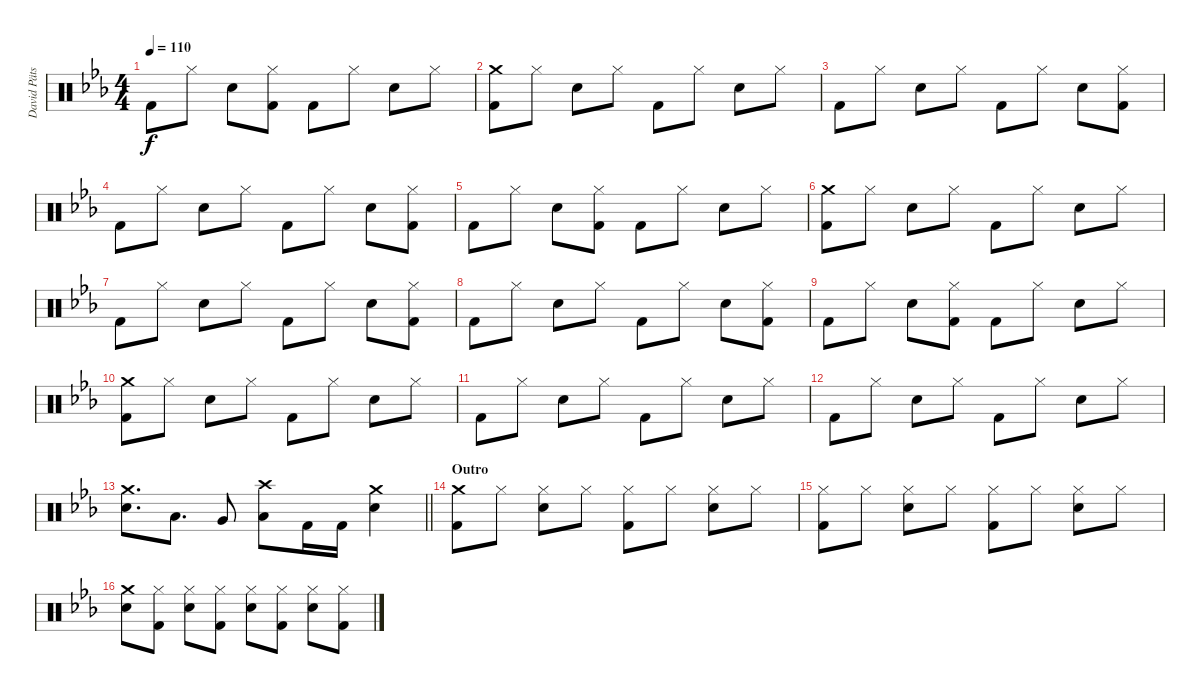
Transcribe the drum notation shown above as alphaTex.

\track ("David Pätsch" "David Päts") {instrument percussion}
\staff {score}
\articulation defaults
\ts (4 4)
\tempo 110
\clef neutral
\ks cminor "Kick (hit) 2".8{dy f} "Hi-Hat (closed)".8 "Snare (hit) 2".8
("Kick (hit) 2" "Hi-Hat (closed)").8 "Kick (hit) 2".8 "Hi-Hat (closed)".8 "Snare (hit) 2".8 "Hi-Hat (closed)".8 |
("Kick (hit) 2" "Crash medium (hit)").8 "Hi-Hat (closed)".8 "Snare (hit) 2".8 "Hi-Hat (closed)".8 "Kick (hit) 2".8 "Hi-Hat (closed)".8 "Snare (hit) 2".8 "Hi-Hat (closed)".8 |
"Kick (hit) 2".8 "Hi-Hat (closed)".8 "Snare (hit) 2".8 "Hi-Hat (closed)".8 "Kick (hit) 2".8 "Hi-Hat (closed)".8 "Snare (hit) 2".8 ("Kick (hit) 2" "Hi-Hat (closed)").8 |
"Kick (hit) 2".8 "Hi-Hat (closed)".8 "Snare (hit) 2".8 "Hi-Hat (closed)".8 "Kick (hit) 2".8 "Hi-Hat (closed)".8 "Snare (hit) 2".8 ("Kick (hit) 2" "Hi-Hat (closed)").8 |
"Kick (hit) 2".8 "Hi-Hat (closed)".8 "Snare (hit) 2".8 ("Kick (hit) 2" "Hi-Hat (closed)").8 "Kick (hit) 2".8 "Hi-Hat (closed)".8 "Snare (hit) 2".8 "Hi-Hat (closed)".8 |
("Kick (hit) 2" "Crash medium (hit)").8 "Hi-Hat (closed)".8 "Snare (hit) 2".8 "Hi-Hat (closed)".8 "Kick (hit) 2".8 "Hi-Hat (closed)".8 "Snare (hit) 2".8 "Hi-Hat (closed)".8 |
"Kick (hit) 2".8 "Hi-Hat (closed)".8 "Snare (hit) 2".8 "Hi-Hat (closed)".8 "Kick (hit) 2".8 "Hi-Hat (closed)".8 "Snare (hit) 2".8 ("Kick (hit) 2" "Hi-Hat (closed)").8 |
"Kick (hit) 2".8 "Hi-Hat (closed)".8 "Snare (hit) 2".8 "Hi-Hat (closed)".8 "Kick (hit) 2".8 "Hi-Hat (closed)".8 "Snare (hit) 2".8 ("Kick (hit) 2" "Hi-Hat (closed)").8 |
"Kick (hit) 2".8 "Hi-Hat (closed)".8 "Snare (hit) 2".8 ("Kick (hit) 2" "Hi-Hat (closed)").8 "Kick (hit) 2".8 "Hi-Hat (closed)".8 "Snare (hit) 2".8 "Hi-Hat (closed)".8 |
("Kick (hit) 2" "Crash medium (hit)").8 "Hi-Hat (closed)".8 "Snare (hit) 2".8 "Hi-Hat (closed)".8 "Kick (hit) 2".8 "Hi-Hat (closed)".8 "Snare (hit) 2".8 "Hi-Hat (closed)".8 |
"Kick (hit) 2".8 "Hi-Hat (closed)".8 "Snare (hit) 2".8 "Hi-Hat (closed)".8 "Kick (hit) 2".8 "Hi-Hat (closed)".8 "Snare (hit) 2".8 "Hi-Hat (closed)".8 |
"Kick (hit) 2".8 "Hi-Hat (closed)".8 "Snare (hit) 2".8 "Hi-Hat (closed)".8 "Kick (hit) 2".8 "Hi-Hat (closed)".8 "Snare (hit) 2".8 "Hi-Hat (closed)".8 |
\barLineRight lightlight
("Snare (hit) 2" "Crash medium (hit)").8{d} "Low Tom (hit)".8{d} "Very Low Tom (hit)".8 ("Crash high (hit)" "Low Floor Tom (hit)").8 "Kick (hit) 2".16 "Kick (hit) 2".16 ("Crash medium (hit)" "Snare (hit) 2").4 |
\section ("" "Outro")
("Kick (hit) 2" "Crash medium (hit)").8 "Hi-Hat (closed)".8 ("Snare (hit) 2" "Hi-Hat (closed)").8 "Hi-Hat (closed)".8 ("Kick (hit) 2" "Hi-Hat (closed)").8 "Hi-Hat (closed)".8 ("Snare (hit) 2" "Hi-Hat (closed)").8 "Hi-Hat (closed)".8 |
("Kick (hit) 2" "Hi-Hat (closed)").8 "Hi-Hat (closed)".8 ("Snare (hit) 2" "Hi-Hat (closed)").8 "Hi-Hat (closed)".8 ("Kick (hit) 2" "Hi-Hat (closed)").8 "Hi-Hat (closed)".8 ("Snare (hit) 2" "Hi-Hat (closed)").8 "Hi-Hat (closed)".8 |
("Snare (hit) 2" "Crash medium (hit)").8 ("Kick (hit) 2" "Hi-Hat (closed)").8 ("Snare (hit) 2" "Hi-Hat (closed)").8 ("Kick (hit) 2" "Hi-Hat (closed)").8 ("Snare (hit) 2" "Hi-Hat (closed)").8 ("Kick (hit) 2" "Hi-Hat (closed)").8 ("Snare (hit) 2" "Hi-Hat (closed)").8 ("Kick (hit) 2" "Hi-Hat (closed)").8
